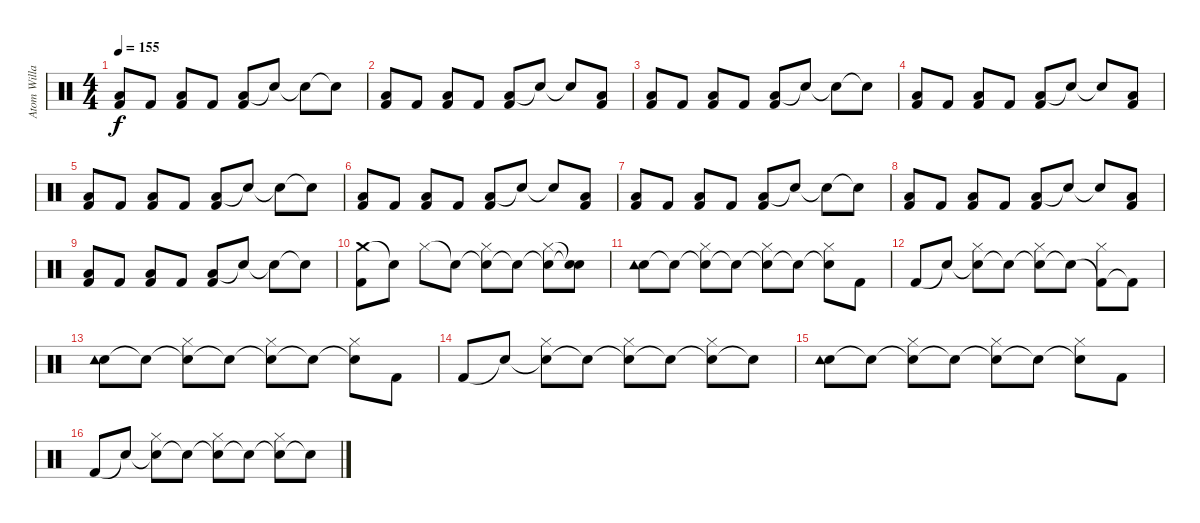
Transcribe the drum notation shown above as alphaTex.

\track ("Atom Willard Drums" "Atom Willa") {instrument percussion}
\staff {score}
\articulation defaults
\ts (4 4)
\tempo 155
\clef neutral
\ks c
("Low Tom (hit)" "Kick (hit) 2").8{dy f} "Kick (hit) 2".8 ("Low Tom (hit)" "Kick (hit) 2").8 "Kick (hit) 2".8 ("Low Tom (hit)" "Kick (hit) 2").8 "Snare (hit)"{t}.8 "Snare (hit)"{t}.8 "Snare (hit)"{t}.8 |
("Low Tom (hit)" "Kick (hit) 2").8 "Kick (hit) 2".8 ("Low Tom (hit)" "Kick (hit) 2").8 "Kick (hit) 2".8 ("Low Tom (hit)" "Kick (hit) 2").8 "Snare (hit)"{t}.8 "Snare (hit)"{t}.8 ("Low Tom (hit)" "Kick (hit) 2").8 |
("Low Tom (hit)" "Kick (hit) 2").8 "Kick (hit) 2".8 ("Low Tom (hit)" "Kick (hit) 2").8 "Kick (hit) 2".8 ("Low Tom (hit)" "Kick (hit) 2").8 "Snare (hit)"{t}.8 "Snare (hit)"{t}.8 "Snare (hit)"{t}.8 |
("Low Tom (hit)" "Kick (hit) 2").8 "Kick (hit) 2".8 ("Low Tom (hit)" "Kick (hit) 2").8 "Kick (hit) 2".8 ("Low Tom (hit)" "Kick (hit) 2").8 "Snare (hit)"{t}.8 "Snare (hit)"{t}.8 ("Low Tom (hit)" "Kick (hit) 2").8 |
("Low Tom (hit)" "Kick (hit) 2").8 "Kick (hit) 2".8 ("Low Tom (hit)" "Kick (hit) 2").8 "Kick (hit) 2".8 ("Low Tom (hit)" "Kick (hit) 2").8 "Snare (hit)"{t}.8 "Snare (hit)"{t}.8 "Snare (hit)"{t}.8 |
("Low Tom (hit)" "Kick (hit) 2").8 "Kick (hit) 2".8 ("Low Tom (hit)" "Kick (hit) 2").8 "Kick (hit) 2".8 ("Low Tom (hit)" "Kick (hit) 2").8 "Snare (hit)"{t}.8 "Snare (hit)"{t}.8 ("Low Tom (hit)" "Kick (hit) 2").8 |
("Low Tom (hit)" "Kick (hit) 2").8 "Kick (hit) 2".8 ("Low Tom (hit)" "Kick (hit) 2").8 "Kick (hit) 2".8 ("Low Tom (hit)" "Kick (hit) 2").8 "Snare (hit)"{t}.8 "Snare (hit)"{t}.8 "Snare (hit)"{t}.8 |
("Low Tom (hit)" "Kick (hit) 2").8 "Kick (hit) 2".8 ("Low Tom (hit)" "Kick (hit) 2").8 "Kick (hit) 2".8 ("Low Tom (hit)" "Kick (hit) 2").8 "Snare (hit)"{t}.8 "Snare (hit)"{t}.8 ("Low Tom (hit)" "Kick (hit) 2").8 |
("Low Tom (hit)" "Kick (hit) 2").8 "Kick (hit) 2".8 ("Low Tom (hit)" "Kick (hit) 2").8 "Kick (hit) 2".8 ("Low Tom (hit)" "Kick (hit) 2").8 "Snare (hit)"{t}.8 "Snare (hit)"{t}.8 "Snare (hit)"{t}.8 |
("Crash medium (hit)" "Kick (hit) 2").8 "Snare (hit)"{t}.8 "Hi-Hat (closed)".8 "Snare (hit)"{t}.8 ("Snare (hit)"{t} "Hi-Hat (closed)").8 "Snare (hit)"{t}.8 ("Snare (hit)"{t} "Hi-Hat (closed)").8 ("Snare (hit)"{t} "Snare (hit)"{t}).8 |
("Hand Clap (hit)" "Tambourine (hit)").8 "Snare (hit)"{t}.8 ("Snare (hit)"{t} "Hi-Hat (closed)").8 "Snare (hit)"{t}.8 ("Snare (hit)"{t} "Hi-Hat (closed)").8 "Snare (hit)"{t}.8 ("Snare (hit)"{t} "Hi-Hat (closed)").8 "Kick (hit) 2".8 |
"Kick (hit) 2".8 "Snare (hit)"{t}.8 ("Snare (hit)"{t} "Hi-Hat (closed)").8 "Snare (hit)"{t}.8 ("Snare (hit)"{t} "Hi-Hat (closed)").8 "Snare (hit)"{t}.8 ("Kick (hit) 2"{t} "Hi-Hat (closed)").8 "Kick (hit) 2"{t}.8 |
("Hand Clap (hit)" "Tambourine (hit)").8 "Snare (hit)"{t}.8 ("Snare (hit)"{t} "Hi-Hat (closed)").8 "Snare (hit)"{t}.8 ("Snare (hit)"{t} "Hi-Hat (closed)").8 "Snare (hit)"{t}.8 ("Snare (hit)"{t} "Hi-Hat (closed)").8 "Kick (hit) 2".8 |
"Kick (hit) 2".8 "Snare (hit)"{t}.8 ("Snare (hit)"{t} "Hi-Hat (closed)").8 "Snare (hit)"{t}.8 ("Snare (hit)"{t} "Hi-Hat (closed)").8 "Snare (hit)"{t}.8 ("Snare (hit)"{t} "Hi-Hat (closed)").8 "Snare (hit)"{t}.8 |
("Hand Clap (hit)" "Tambourine (hit)").8 "Snare (hit)"{t}.8 ("Snare (hit)"{t} "Hi-Hat (closed)").8 "Snare (hit)"{t}.8 ("Snare (hit)"{t} "Hi-Hat (closed)").8 "Snare (hit)"{t}.8 ("Snare (hit)"{t} "Hi-Hat (closed)").8 "Kick (hit) 2".8 |
"Kick (hit) 2".8 "Snare (hit)"{t}.8 ("Snare (hit)"{t} "Hi-Hat (closed)").8 "Snare (hit)"{t}.8 ("Snare (hit)"{t} "Hi-Hat (closed)").8 "Snare (hit)"{t}.8 ("Snare (hit)"{t} "Hi-Hat (closed)").8 "Snare (hit)"{t}.8
